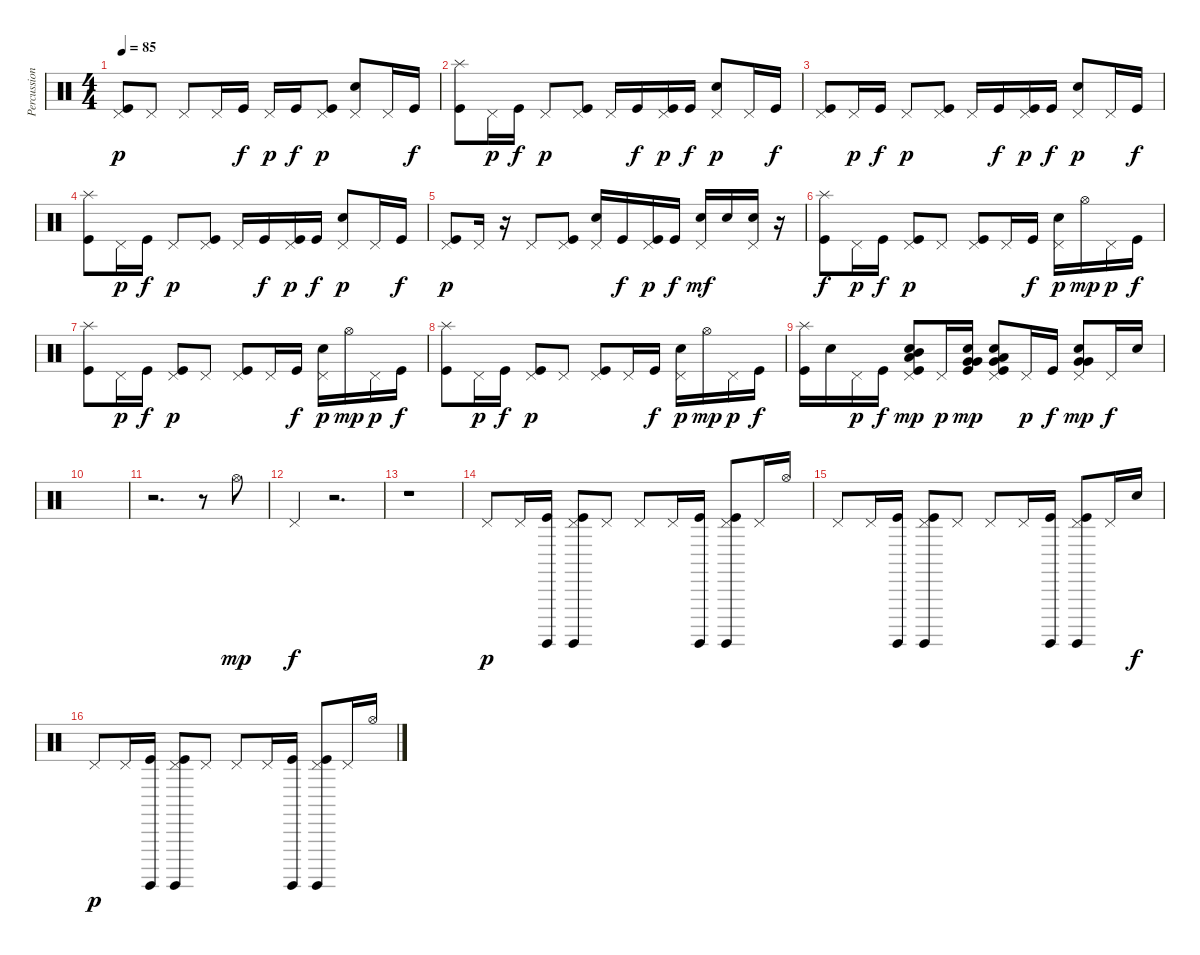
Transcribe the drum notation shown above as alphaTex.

\track ("Percussions" "Percussion") {instrument percussion}
\staff {score}
\articulation defaults
\ts (4 4)
\tempo 85
\clef neutral
\ks c
("Pedal Hi-Hat (hit)" "Kick (hit)").8{dy p} "Pedal Hi-Hat (hit)".8 "Pedal Hi-Hat (hit)".8 "Pedal Hi-Hat (hit)".16 "Kick (hit)".16{dy f} "Pedal Hi-Hat (hit)".16{dy p} "Kick (hit)".16{dy f} ("Pedal Hi-Hat (hit)" "Kick (hit)").8{dy p} ("Pedal Hi-Hat (hit)" "Snare (hit) 2").8 "Pedal Hi-Hat (hit)".16 "Kick (hit)".16{dy f} |
("Splash (hit)" "Kick (hit)").8 "Pedal Hi-Hat (hit)".16{dy p} "Kick (hit)".16{dy f} "Pedal Hi-Hat (hit)".8{dy p} ("Pedal Hi-Hat (hit)" "Kick (hit)").8 "Pedal Hi-Hat (hit)".16 "Kick (hit)".16{dy f} ("Pedal Hi-Hat (hit)" "Kick (hit)").16{dy p} "Kick (hit)".16{dy f} ("Pedal Hi-Hat (hit)" "Snare (hit) 2").8{dy p} "Pedal Hi-Hat (hit)".16 "Kick (hit)".16{dy f} |
("Pedal Hi-Hat (hit)" "Kick (hit)").8 "Pedal Hi-Hat (hit)".16{dy p} "Kick (hit)".16{dy f} "Pedal Hi-Hat (hit)".8{dy p} ("Pedal Hi-Hat (hit)" "Kick (hit)").8 "Pedal Hi-Hat (hit)".16 "Kick (hit)".16{dy f} ("Pedal Hi-Hat (hit)" "Kick (hit)").16{dy p} "Kick (hit)".16{dy f} ("Pedal Hi-Hat (hit)" "Snare (hit) 2").8{dy p} "Pedal Hi-Hat (hit)".16 "Kick (hit)".16{dy f} |
("Splash (hit)" "Kick (hit)").8 "Pedal Hi-Hat (hit)".16{dy p} "Kick (hit)".16{dy f} "Pedal Hi-Hat (hit)".8{dy p} ("Pedal Hi-Hat (hit)" "Kick (hit)").8 "Pedal Hi-Hat (hit)".16 "Kick (hit)".16{dy f} ("Pedal Hi-Hat (hit)" "Kick (hit)").16{dy p} "Kick (hit)".16{dy f} ("Pedal Hi-Hat (hit)" "Snare (hit) 2").8{dy p} "Pedal Hi-Hat (hit)".16 "Kick (hit)".16{dy f} |
("Pedal Hi-Hat (hit)" "Kick (hit)").8{dy p} "Pedal Hi-Hat (hit)".16 r.16 "Pedal Hi-Hat (hit)".8 ("Pedal Hi-Hat (hit)" "Kick (hit)").8 ("Pedal Hi-Hat (hit)" "Snare (hit) 2").16 "Kick (hit)".16{dy f} ("Pedal Hi-Hat (hit)" "Kick (hit)").16{dy p} "Kick (hit)".16{dy f} ("Pedal Hi-Hat (hit)" "Snare (hit) 2").16{dy mf} "Snare (hit) 2".16 ("Pedal Hi-Hat (hit)" "Snare (hit) 2").16 r.16 |
("Splash (hit)" "Kick (hit)").8{dy f} "Pedal Hi-Hat (hit)".16{dy p} "Kick (hit)".16{dy f} ("Pedal Hi-Hat (hit)" "Kick (hit)").8{dy p} "Pedal Hi-Hat (hit)".8 ("Pedal Hi-Hat (hit)" "Kick (hit)").8 "Pedal Hi-Hat (hit)".16 "Kick (hit)".16{dy f} ("Pedal Hi-Hat (hit)" "Snare (hit) 2").16{dy p} "Hi-Hat (open)".16{dy mp} "Pedal Hi-Hat (hit)".16{dy p} "Kick (hit)".16{dy f} |
("Splash (hit)" "Kick (hit)").8 "Pedal Hi-Hat (hit)".16{dy p} "Kick (hit)".16{dy f} ("Pedal Hi-Hat (hit)" "Kick (hit)").8{dy p} "Pedal Hi-Hat (hit)".8 ("Pedal Hi-Hat (hit)" "Kick (hit)").8 "Pedal Hi-Hat (hit)".16 "Kick (hit)".16{dy f} ("Pedal Hi-Hat (hit)" "Snare (hit) 2").16{dy p} "Hi-Hat (open)".16{dy mp} "Pedal Hi-Hat (hit)".16{dy p} "Kick (hit)".16{dy f} |
("Splash (hit)" "Kick (hit)").8 "Pedal Hi-Hat (hit)".16{dy p} "Kick (hit)".16{dy f} ("Pedal Hi-Hat (hit)" "Kick (hit)").8{dy p} "Pedal Hi-Hat (hit)".8 ("Pedal Hi-Hat (hit)" "Kick (hit)").8 "Pedal Hi-Hat (hit)".16 "Kick (hit)".16{dy f} ("Pedal Hi-Hat (hit)" "Snare (hit) 2").16{dy p} "Hi-Hat (open)".16{dy mp} "Pedal Hi-Hat (hit)".16{dy p} "Kick (hit)".16{dy f} |
("Splash (hit)" "Kick (hit)").16 "Snare (hit) 2".16 "Pedal Hi-Hat (hit)".16{dy p} "Kick (hit)".16{dy f} ("Pedal Hi-Hat (hit)" "Snare (hit) 2" "Mid Tom (hit)" "Low Tom (hit)" "Kick (hit)").8{dy mp} "Pedal Hi-Hat (hit)".16{dy p} ("Snare (hit) 2" "Very Low Tom (hit)" "Very Low Tom (hit)" "Kick (hit)").16{dy mp} ("Pedal Hi-Hat (hit)" "Snare (hit) 2" "Very Low Tom (hit)" "Low Floor Tom (hit)" "Kick (hit)").8 "Pedal Hi-Hat (hit)".16{dy p} "Kick (hit)".16{dy f} ("Pedal Hi-Hat (hit)" "Snare (hit) 2" "Very Low Tom (hit)" "Very Low Tom (hit)").8{dy mp} "Pedal Hi-Hat (hit)".16{dy f} "Snare (hit) 2".16 |
|
r.2{d} r.8 "Hi-Hat (open)".8{dy mp} |
"Pedal Hi-Hat (hit)".4{dy f} r.2{d} |
r.1 |
"Pedal Hi-Hat (hit)".8{dy p} "Pedal Hi-Hat (hit)".16 ("Surdo (hit)" "Kick (hit)").16 ("Pedal Hi-Hat (hit)" "Surdo (hit)" "Kick (hit)").8 "Pedal Hi-Hat (hit)".8 "Pedal Hi-Hat (hit)".8 "Pedal Hi-Hat (hit)".16 ("Surdo (hit)" "Kick (hit)").16 ("Pedal Hi-Hat (hit)" "Surdo (hit)" "Kick (hit)").8 "Pedal Hi-Hat (hit)".16 "Hi-Hat (open)".16 |
"Pedal Hi-Hat (hit)".8 "Pedal Hi-Hat (hit)".16 ("Surdo (hit)" "Kick (hit)").16 ("Pedal Hi-Hat (hit)" "Surdo (hit)" "Kick (hit)").8 "Pedal Hi-Hat (hit)".8 "Pedal Hi-Hat (hit)".8 "Pedal Hi-Hat (hit)".16 ("Surdo (hit)" "Kick (hit)").16 ("Pedal Hi-Hat (hit)" "Surdo (hit)" "Kick (hit)").8 "Pedal Hi-Hat (hit)".16 "Snare (hit) 2".16{dy f} |
"Pedal Hi-Hat (hit)".8{dy p} "Pedal Hi-Hat (hit)".16 ("Surdo (hit)" "Kick (hit)").16 ("Pedal Hi-Hat (hit)" "Surdo (hit)" "Kick (hit)").8 "Pedal Hi-Hat (hit)".8 "Pedal Hi-Hat (hit)".8 "Pedal Hi-Hat (hit)".16 ("Surdo (hit)" "Kick (hit)").16 ("Pedal Hi-Hat (hit)" "Surdo (hit)" "Kick (hit)").8 "Pedal Hi-Hat (hit)".16 "Hi-Hat (open)".16
